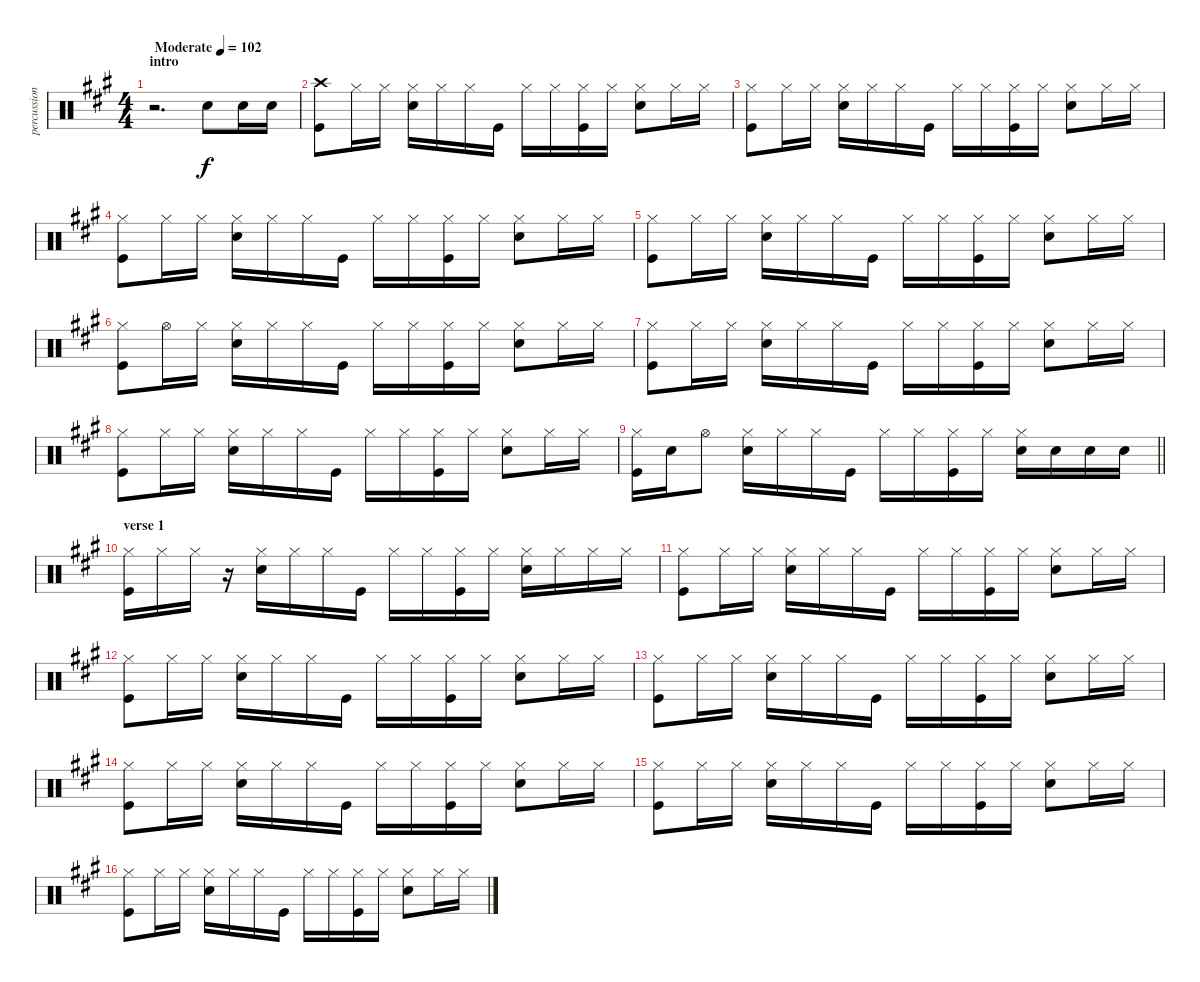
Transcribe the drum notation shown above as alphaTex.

\track ("percussion" "percussion") {instrument percussion}
\staff {score}
\articulation defaults
\ts (4 4)
\section ("" "intro")
\tempo (102 "Moderate")
\clef neutral
\ks a
r.2{d dy f} "Electric Snare (hit)".8 "Electric Snare (hit)".16 "Electric Snare (hit)".16 |
("Crash high (hit)" "Kick (hit)").8 "Hi-Hat (closed)".16 "Hi-Hat (closed)".16 ("Electric Snare (hit)" "Hi-Hat (closed)").16 "Hi-Hat (closed)".16 "Hi-Hat (closed)".16 "Kick (hit)".16 "Hi-Hat (closed)".16 "Hi-Hat (closed)".16 ("Hi-Hat (closed)" "Kick (hit)").16 "Hi-Hat (closed)".16 ("Electric Snare (hit)" "Hi-Hat (closed)").8 "Hi-Hat (closed)".16 "Hi-Hat (closed)".16 |
("Hi-Hat (closed)" "Kick (hit)").8 "Hi-Hat (closed)".16 "Hi-Hat (closed)".16 ("Electric Snare (hit)" "Hi-Hat (closed)").16 "Hi-Hat (closed)".16 "Hi-Hat (closed)".16 "Kick (hit)".16 "Hi-Hat (closed)".16 "Hi-Hat (closed)".16 ("Hi-Hat (closed)" "Kick (hit)").16 "Hi-Hat (closed)".16 ("Electric Snare (hit)" "Hi-Hat (closed)").8 "Hi-Hat (closed)".16 "Hi-Hat (closed)".16 |
("Hi-Hat (closed)" "Kick (hit)").8 "Hi-Hat (closed)".16 "Hi-Hat (closed)".16 ("Electric Snare (hit)" "Hi-Hat (closed)").16 "Hi-Hat (closed)".16 "Hi-Hat (closed)".16 "Kick (hit)".16 "Hi-Hat (closed)".16 "Hi-Hat (closed)".16 ("Hi-Hat (closed)" "Kick (hit)").16 "Hi-Hat (closed)".16 ("Electric Snare (hit)" "Hi-Hat (closed)").8 "Hi-Hat (closed)".16 "Hi-Hat (closed)".16 |
("Hi-Hat (closed)" "Kick (hit)").8 "Hi-Hat (closed)".16 "Hi-Hat (closed)".16 ("Electric Snare (hit)" "Hi-Hat (closed)").16 "Hi-Hat (closed)".16 "Hi-Hat (closed)".16 "Kick (hit)".16 "Hi-Hat (closed)".16 "Hi-Hat (closed)".16 ("Hi-Hat (closed)" "Kick (hit)").16 "Hi-Hat (closed)".16 ("Electric Snare (hit)" "Hi-Hat (closed)").8 "Hi-Hat (closed)".16 "Hi-Hat (closed)".16 |
("Hi-Hat (closed)" "Kick (hit)").8 "Hi-Hat (open)".16 "Hi-Hat (closed)".16 ("Electric Snare (hit)" "Hi-Hat (closed)").16 "Hi-Hat (closed)".16 "Hi-Hat (closed)".16 "Kick (hit)".16 "Hi-Hat (closed)".16 "Hi-Hat (closed)".16 ("Hi-Hat (closed)" "Kick (hit)").16 "Hi-Hat (closed)".16 ("Electric Snare (hit)" "Hi-Hat (closed)").8 "Hi-Hat (closed)".16 "Hi-Hat (closed)".16 |
("Hi-Hat (closed)" "Kick (hit)").8 "Hi-Hat (closed)".16 "Hi-Hat (closed)".16 ("Electric Snare (hit)" "Hi-Hat (closed)").16 "Hi-Hat (closed)".16 "Hi-Hat (closed)".16 "Kick (hit)".16 "Hi-Hat (closed)".16 "Hi-Hat (closed)".16 ("Hi-Hat (closed)" "Kick (hit)").16 "Hi-Hat (closed)".16 ("Electric Snare (hit)" "Hi-Hat (closed)").8 "Hi-Hat (closed)".16 "Hi-Hat (closed)".16 |
("Hi-Hat (closed)" "Kick (hit)").8 "Hi-Hat (closed)".16 "Hi-Hat (closed)".16 ("Electric Snare (hit)" "Hi-Hat (closed)").16 "Hi-Hat (closed)".16 "Hi-Hat (closed)".16 "Kick (hit)".16 "Hi-Hat (closed)".16 "Hi-Hat (closed)".16 ("Hi-Hat (closed)" "Kick (hit)").16 "Hi-Hat (closed)".16 ("Electric Snare (hit)" "Hi-Hat (closed)").8 "Hi-Hat (closed)".16 "Hi-Hat (closed)".16 |
\barLineRight lightlight
("Hi-Hat (closed)" "Kick (hit)").16 "Electric Snare (hit)".16 "Hi-Hat (open)".8 ("Electric Snare (hit)" "Hi-Hat (closed)").16 "Hi-Hat (closed)".16 "Hi-Hat (closed)".16 "Kick (hit)".16 "Hi-Hat (closed)".16 "Hi-Hat (closed)".16 ("Hi-Hat (closed)" "Kick (hit)").16 "Hi-Hat (closed)".16 ("Electric Snare (hit)" "Hi-Hat (closed)").16 "Electric Snare (hit)".16 "Electric Snare (hit)".16 "Electric Snare (hit)".16 |
\section ("" "verse 1")
("Hi-Hat (closed)" "Kick (hit)").16 "Hi-Hat (closed)".16 "Hi-Hat (closed)".16 r.16 ("Electric Snare (hit)" "Hi-Hat (closed)").16 "Hi-Hat (closed)".16 "Hi-Hat (closed)".16 "Kick (hit)".16 "Hi-Hat (closed)".16 "Hi-Hat (closed)".16 ("Hi-Hat (closed)" "Kick (hit)").16 "Hi-Hat (closed)".16 ("Electric Snare (hit)" "Hi-Hat (closed)").16 "Hi-Hat (closed)".16 "Hi-Hat (closed)".16 "Hi-Hat (closed)".16 |
("Hi-Hat (closed)" "Kick (hit)").8 "Hi-Hat (closed)".16 "Hi-Hat (closed)".16 ("Electric Snare (hit)" "Hi-Hat (closed)").16 "Hi-Hat (closed)".16 "Hi-Hat (closed)".16 "Kick (hit)".16 "Hi-Hat (closed)".16 "Hi-Hat (closed)".16 ("Hi-Hat (closed)" "Kick (hit)").16 "Hi-Hat (closed)".16 ("Electric Snare (hit)" "Hi-Hat (closed)").8 "Hi-Hat (closed)".16 "Hi-Hat (closed)".16 |
("Hi-Hat (closed)" "Kick (hit)").8 "Hi-Hat (closed)".16 "Hi-Hat (closed)".16 ("Electric Snare (hit)" "Hi-Hat (closed)").16 "Hi-Hat (closed)".16 "Hi-Hat (closed)".16 "Kick (hit)".16 "Hi-Hat (closed)".16 "Hi-Hat (closed)".16 ("Hi-Hat (closed)" "Kick (hit)").16 "Hi-Hat (closed)".16 ("Electric Snare (hit)" "Hi-Hat (closed)").8 "Hi-Hat (closed)".16 "Hi-Hat (closed)".16 |
("Hi-Hat (closed)" "Kick (hit)").8 "Hi-Hat (closed)".16 "Hi-Hat (closed)".16 ("Electric Snare (hit)" "Hi-Hat (closed)").16 "Hi-Hat (closed)".16 "Hi-Hat (closed)".16 "Kick (hit)".16 "Hi-Hat (closed)".16 "Hi-Hat (closed)".16 ("Hi-Hat (closed)" "Kick (hit)").16 "Hi-Hat (closed)".16 ("Electric Snare (hit)" "Hi-Hat (closed)").8 "Hi-Hat (closed)".16 "Hi-Hat (closed)".16 |
("Hi-Hat (closed)" "Kick (hit)").8 "Hi-Hat (closed)".16 "Hi-Hat (closed)".16 ("Electric Snare (hit)" "Hi-Hat (closed)").16 "Hi-Hat (closed)".16 "Hi-Hat (closed)".16 "Kick (hit)".16 "Hi-Hat (closed)".16 "Hi-Hat (closed)".16 ("Hi-Hat (closed)" "Kick (hit)").16 "Hi-Hat (closed)".16 ("Electric Snare (hit)" "Hi-Hat (closed)").8 "Hi-Hat (closed)".16 "Hi-Hat (closed)".16 |
("Hi-Hat (closed)" "Kick (hit)").8 "Hi-Hat (closed)".16 "Hi-Hat (closed)".16 ("Electric Snare (hit)" "Hi-Hat (closed)").16 "Hi-Hat (closed)".16 "Hi-Hat (closed)".16 "Kick (hit)".16 "Hi-Hat (closed)".16 "Hi-Hat (closed)".16 ("Hi-Hat (closed)" "Kick (hit)").16 "Hi-Hat (closed)".16 ("Electric Snare (hit)" "Hi-Hat (closed)").8 "Hi-Hat (closed)".16 "Hi-Hat (closed)".16 |
("Hi-Hat (closed)" "Kick (hit)").8 "Hi-Hat (closed)".16 "Hi-Hat (closed)".16 ("Electric Snare (hit)" "Hi-Hat (closed)").16 "Hi-Hat (closed)".16 "Hi-Hat (closed)".16 "Kick (hit)".16 "Hi-Hat (closed)".16 "Hi-Hat (closed)".16 ("Hi-Hat (closed)" "Kick (hit)").16 "Hi-Hat (closed)".16 ("Electric Snare (hit)" "Hi-Hat (closed)").8 "Hi-Hat (closed)".16 "Hi-Hat (closed)".16
